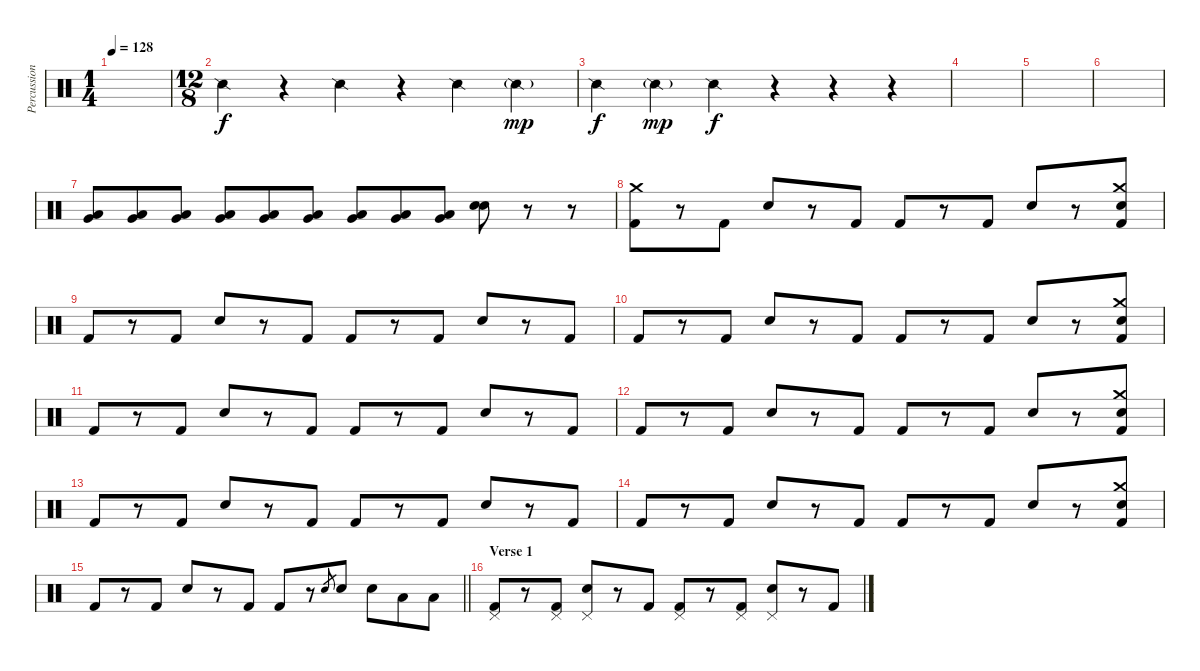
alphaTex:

\track ("Percussion" "Percussion") {instrument percussion}
\staff {score}
\articulation defaults
\ts (1 4)
\tempo 128
\clef neutral
\ks c
|
\ts (12 8)
"Snare (side stick) 2".4 r.4 "Snare (side stick) 2".4 r.4 "Snare (side stick) 2".4 "Snare (side stick) 2"{g}.4{dy mp} |
"Snare (side stick) 2".4{dy f} "Snare (side stick) 2"{g}.4{dy mp} "Snare (side stick) 2".4{dy f} r.4 r.4 r.4 |
|
|
|
("Very Low Tom (hit)" "Low Tom (hit)").8 ("Very Low Tom (hit)" "Low Tom (hit)").8 ("Very Low Tom (hit)" "Low Tom (hit)").8 ("Very Low Tom (hit)" "Low Tom (hit)").8 ("Very Low Tom (hit)" "Low Tom (hit)").8 ("Very Low Tom (hit)" "Low Tom (hit)").8 ("Very Low Tom (hit)" "Low Tom (hit)").8 ("Very Low Tom (hit)" "Low Tom (hit)").8 ("Very Low Tom (hit)" "Low Tom (hit)").8 ("Snare (hit) 2" "Snare (hit) 2").8 r.8 r.8 |
("Crash medium (hit)" "Kick (hit) 2").8 r.8 "Kick (hit) 2".8 "Snare (hit) 2".8 r.8 "Kick (hit) 2".8 "Kick (hit) 2".8 r.8 "Kick (hit) 2".8 "Snare (hit) 2".8 r.8 ("Crash medium (hit)" "Snare (hit) 2" "Kick (hit) 2").8 |
"Kick (hit) 2".8 r.8 "Kick (hit) 2".8 "Snare (hit) 2".8 r.8 "Kick (hit) 2".8 "Kick (hit) 2".8 r.8 "Kick (hit) 2".8 "Snare (hit) 2".8 r.8 "Kick (hit) 2".8 |
"Kick (hit) 2".8 r.8 "Kick (hit) 2".8 "Snare (hit) 2".8 r.8 "Kick (hit) 2".8 "Kick (hit) 2".8 r.8 "Kick (hit) 2".8 "Snare (hit) 2".8 r.8 ("Crash medium (hit)" "Snare (hit) 2" "Kick (hit) 2").8 |
"Kick (hit) 2".8 r.8 "Kick (hit) 2".8 "Snare (hit) 2".8 r.8 "Kick (hit) 2".8 "Kick (hit) 2".8 r.8 "Kick (hit) 2".8 "Snare (hit) 2".8 r.8 "Kick (hit) 2".8 |
"Kick (hit) 2".8 r.8 "Kick (hit) 2".8 "Snare (hit) 2".8 r.8 "Kick (hit) 2".8 "Kick (hit) 2".8 r.8 "Kick (hit) 2".8 "Snare (hit) 2".8 r.8 ("Crash medium (hit)" "Snare (hit) 2" "Kick (hit) 2").8 |
"Kick (hit) 2".8 r.8 "Kick (hit) 2".8 "Snare (hit) 2".8 r.8 "Kick (hit) 2".8 "Kick (hit) 2".8 r.8 "Kick (hit) 2".8 "Snare (hit) 2".8 r.8 "Kick (hit) 2".8 |
"Kick (hit) 2".8 r.8 "Kick (hit) 2".8 "Snare (hit) 2".8 r.8 "Kick (hit) 2".8 "Kick (hit) 2".8 r.8 "Kick (hit) 2".8 "Snare (hit) 2".8 r.8 ("Crash medium (hit)" "Snare (hit) 2" "Kick (hit) 2").8 |
\barLineRight lightlight "Kick (hit) 2".8
r.8 "Kick (hit) 2".8 "Snare (hit) 2".8 r.8 "Kick (hit) 2".8 "Kick (hit) 2".8 r.8 "Snare (hit) 2".8{gr} "Snare (hit) 2".8 "Snare (hit) 2".8 "Low Tom (hit)".8 "Low Floor Tom (hit)".8 |
\section ("" "Verse 1")
("Pedal Hi-Hat (hit)" "Kick (hit) 2").8 r.8 ("Pedal Hi-Hat (hit)" "Kick (hit) 2").8 ("Pedal Hi-Hat (hit)" "Snare (hit) 2").8 r.8 "Kick (hit) 2".8 ("Pedal Hi-Hat (hit)" "Kick (hit) 2").8 r.8 ("Pedal Hi-Hat (hit)" "Kick (hit) 2").8 ("Pedal Hi-Hat (hit)" "Snare (hit) 2").8 r.8 "Kick (hit) 2".8
